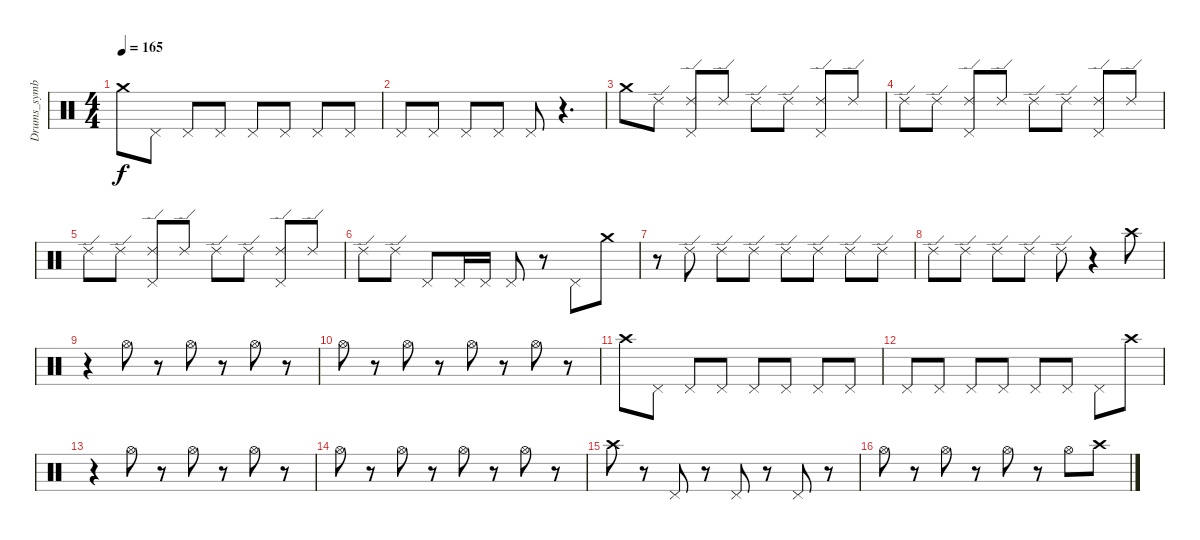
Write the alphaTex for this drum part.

\track ("Drums_symbal" "Drums_symb") {instrument percussion}
\staff {score}
\articulation defaults
\ts (4 4)
\tempo 165
\clef neutral
\ks c "Crash medium (hit)".8{dy f} "Pedal Hi-Hat (hit)".8 "Pedal Hi-Hat (hit)".8 "Pedal Hi-Hat (hit)".8 "Pedal Hi-Hat (hit)".8 "Pedal Hi-Hat (hit)".8 "Pedal Hi-Hat (hit)".8 "Pedal Hi-Hat (hit)".8
|
"Pedal Hi-Hat (hit)".8 "Pedal Hi-Hat (hit)".8 "Pedal Hi-Hat (hit)".8 "Pedal Hi-Hat (hit)".8 "Pedal Hi-Hat (hit)".8 r.4{d} |
"Crash medium (hit)".8 "Ride (edge) 2".8 ("Ride (edge) 2" "Pedal Hi-Hat (hit)").8 "Ride (edge) 2".8 "Ride (edge) 2".8 "Ride (edge) 2".8 ("Ride (edge) 2" "Pedal Hi-Hat (hit)").8 "Ride (edge) 2".8 |
"Ride (edge) 2".8 "Ride (edge) 2".8 ("Ride (edge) 2" "Pedal Hi-Hat (hit)").8 "Ride (edge) 2".8 "Ride (edge) 2".8 "Ride (edge) 2".8 ("Ride (edge) 2" "Pedal Hi-Hat (hit)").8 "Ride (edge) 2".8 |
"Ride (edge) 2".8 "Ride (edge) 2".8 ("Ride (edge) 2" "Pedal Hi-Hat (hit)").8 "Ride (edge) 2".8 "Ride (edge) 2".8 "Ride (edge) 2".8 ("Ride (edge) 2" "Pedal Hi-Hat (hit)").8 "Ride (edge) 2".8 |
"Ride (edge) 2".8 "Ride (edge) 2".8 "Pedal Hi-Hat (hit)".8 "Pedal Hi-Hat (hit)".16 "Pedal Hi-Hat (hit)".16 "Pedal Hi-Hat (hit)".8 r.8 "Pedal Hi-Hat (hit)".8 "Crash medium (hit)".8 |
r.8 "Ride (edge) 2".8 "Ride (edge) 2".8 "Ride (edge) 2".8 "Ride (edge) 2".8 "Ride (edge) 2".8 "Ride (edge) 2".8 "Ride (edge) 2".8 |
"Ride (edge) 2".8 "Ride (edge) 2".8 "Ride (edge) 2".8 "Ride (edge) 2".8 "Ride (edge) 2".8 r.4 "Crash high (hit)".8 |
r.4 "Hi-Hat (open)".8 r.8 "Hi-Hat (open)".8 r.8 "Hi-Hat (open)".8 r.8 |
"Hi-Hat (open)".8 r.8 "Hi-Hat (open)".8 r.8 "Hi-Hat (open)".8 r.8 "Hi-Hat (open)".8 r.8 |
"Crash high (hit)".8 "Pedal Hi-Hat (hit)".8 "Pedal Hi-Hat (hit)".8 "Pedal Hi-Hat (hit)".8 "Pedal Hi-Hat (hit)".8 "Pedal Hi-Hat (hit)".8 "Pedal Hi-Hat (hit)".8 "Pedal Hi-Hat (hit)".8 |
"Pedal Hi-Hat (hit)".8 "Pedal Hi-Hat (hit)".8 "Pedal Hi-Hat (hit)".8 "Pedal Hi-Hat (hit)".8 "Pedal Hi-Hat (hit)".8 "Pedal Hi-Hat (hit)".8 "Pedal Hi-Hat (hit)".8 "Crash high (hit)".8 |
r.4 "Hi-Hat (open)".8 r.8 "Hi-Hat (open)".8 r.8 "Hi-Hat (open)".8 r.8 |
"Hi-Hat (open)".8 r.8 "Hi-Hat (open)".8 r.8 "Hi-Hat (open)".8 r.8 "Hi-Hat (open)".8 r.8 |
"Crash high (hit)".8 r.8 "Pedal Hi-Hat (hit)".8 r.8 "Pedal Hi-Hat (hit)".8 r.8 "Pedal Hi-Hat (hit)".8 r.8 |
"Hi-Hat (open)".8 r.8 "Hi-Hat (open)".8 r.8 "Hi-Hat (open)".8 r.8 "Hi-Hat (open)".8 "Crash high (hit)".8
